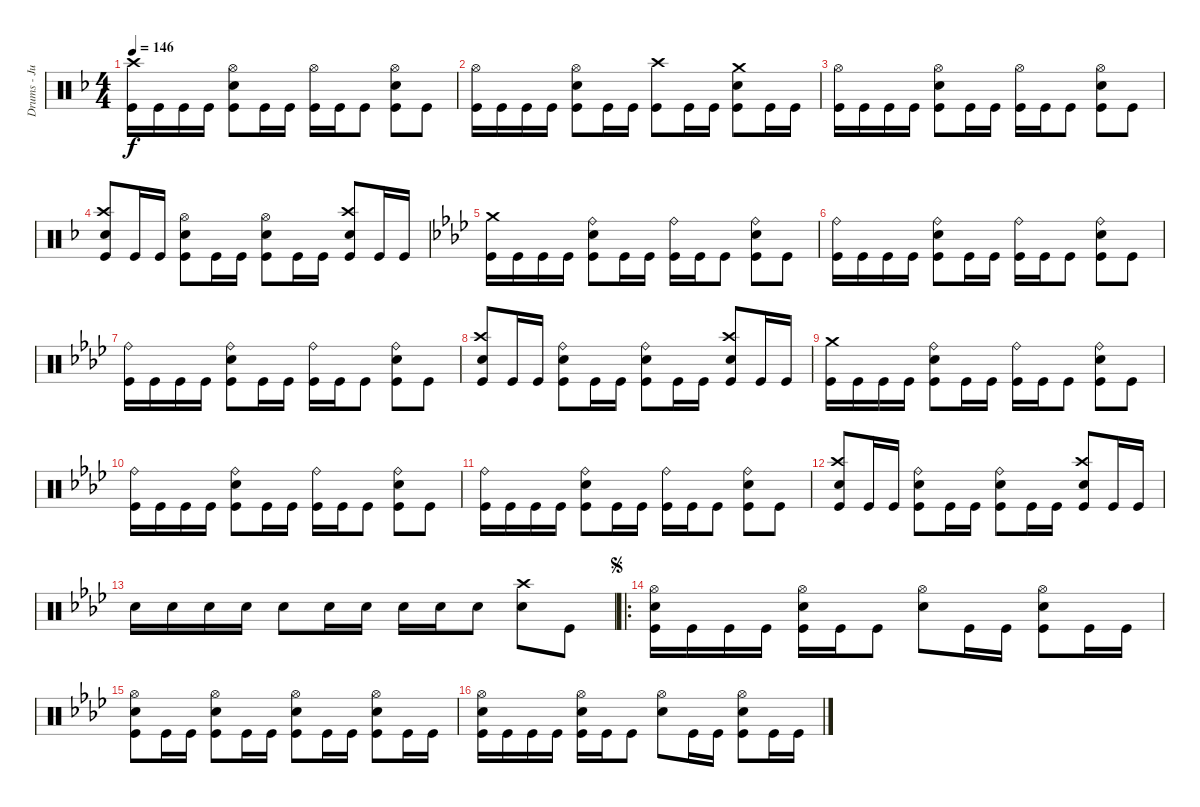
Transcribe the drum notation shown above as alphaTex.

\track ("Drums - Jukka" "Drums - Ju") {instrument percussion}
\staff {score}
\articulation defaults
\ts (4 4)
\tempo 146
\clef neutral
\ks dminor
("Kick (hit)" "Crash high (hit)").16{dy f} "Kick (hit)".16 "Kick (hit)".16 "Kick (hit)".16 ("Kick (hit)" "Snare (hit) 2" "Hi-Hat (open)").8 "Kick (hit)".16 "Kick (hit)".16 ("Kick (hit)" "Hi-Hat (open)").16 "Kick (hit)".16 "Kick (hit)".8 ("Kick (hit)" "Snare (hit) 2" "Hi-Hat (open)").8 "Kick (hit)".8 |
("Kick (hit)" "Hi-Hat (open)").16 "Kick (hit)".16 "Kick (hit)".16 "Kick (hit)".16 ("Kick (hit)" "Snare (hit) 2" "Hi-Hat (open)").8 "Kick (hit)".16 "Kick (hit)".16 ("Kick (hit)" "Crash high (hit)").8 "Kick (hit)".16 "Kick (hit)".16 ("Kick (hit)" "Snare (hit) 2" "Crash medium (hit)").8 "Kick (hit)".16 "Kick (hit)".16 |
("Kick (hit)" "Hi-Hat (open)").16 "Kick (hit)".16 "Kick (hit)".16 "Kick (hit)".16 ("Kick (hit)" "Snare (hit) 2" "Hi-Hat (open)").8 "Kick (hit)".16 "Kick (hit)".16 ("Kick (hit)" "Hi-Hat (open)").16 "Kick (hit)".16 "Kick (hit)".8 ("Kick (hit)" "Snare (hit) 2" "Hi-Hat (open)").8 "Kick (hit)".8 |
("Kick (hit)" "Crash high (hit)" "Snare (hit) 2").8 "Kick (hit)".16 "Kick (hit)".16 ("Kick (hit)" "Snare (hit) 2" "Hi-Hat (open)").8 "Kick (hit)".16 "Kick (hit)".16 ("Kick (hit)" "Snare (hit) 2" "Hi-Hat (open)").8 "Kick (hit)".16 "Kick (hit)".16 ("Kick (hit)" "Snare (hit) 2" "Crash high (hit)").8 "Kick (hit)".16 "Kick (hit)".16 |
\ks fminor
("Kick (hit)" "Crash medium (hit)").16 "Kick (hit)".16 "Kick (hit)".16 "Kick (hit)".16 ("Kick (hit)" "Snare (hit) 2" "Ride (bell)").8 "Kick (hit)".16 "Kick (hit)".16 ("Kick (hit)" "Ride (bell)").16 "Kick (hit)".16 "Kick (hit)".8 ("Kick (hit)" "Snare (hit) 2" "Ride (bell)").8 "Kick (hit)".8 |
("Kick (hit)" "Ride (bell)").16 "Kick (hit)".16 "Kick (hit)".16 "Kick (hit)".16 ("Kick (hit)" "Snare (hit) 2" "Ride (bell)").8 "Kick (hit)".16 "Kick (hit)".16 ("Kick (hit)" "Ride (bell)").16 "Kick (hit)".16 "Kick (hit)".8 ("Kick (hit)" "Snare (hit) 2" "Ride (bell)").8 "Kick (hit)".8 |
("Kick (hit)" "Ride (bell)").16 "Kick (hit)".16 "Kick (hit)".16 "Kick (hit)".16 ("Kick (hit)" "Snare (hit) 2" "Ride (bell)").8 "Kick (hit)".16 "Kick (hit)".16 ("Kick (hit)" "Ride (bell)").16 "Kick (hit)".16 "Kick (hit)".8 ("Kick (hit)" "Snare (hit) 2" "Ride (bell)").8 "Kick (hit)".8 |
("Kick (hit)" "Crash high (hit)" "Snare (hit) 2").8 "Kick (hit)".16 "Kick (hit)".16 ("Kick (hit)" "Snare (hit) 2" "Ride (bell)").8 "Kick (hit)".16 "Kick (hit)".16 ("Kick (hit)" "Snare (hit) 2" "Ride (bell)").8 "Kick (hit)".16 "Kick (hit)".16 ("Kick (hit)" "Snare (hit) 2" "Crash high (hit)").8 "Kick (hit)".16 "Kick (hit)".16 |
("Kick (hit)" "Crash medium (hit)").16 "Kick (hit)".16 "Kick (hit)".16 "Kick (hit)".16 ("Kick (hit)" "Snare (hit) 2" "Ride (bell)").8 "Kick (hit)".16 "Kick (hit)".16 ("Kick (hit)" "Ride (bell)").16 "Kick (hit)".16 "Kick (hit)".8 ("Kick (hit)" "Snare (hit) 2" "Ride (bell)").8 "Kick (hit)".8 |
("Kick (hit)" "Ride (bell)").16 "Kick (hit)".16 "Kick (hit)".16 "Kick (hit)".16 ("Kick (hit)" "Snare (hit) 2" "Ride (bell)").8 "Kick (hit)".16 "Kick (hit)".16 ("Kick (hit)" "Ride (bell)").16 "Kick (hit)".16 "Kick (hit)".8 ("Kick (hit)" "Snare (hit) 2" "Ride (bell)").8 "Kick (hit)".8 |
("Kick (hit)" "Ride (bell)").16 "Kick (hit)".16 "Kick (hit)".16 "Kick (hit)".16 ("Kick (hit)" "Snare (hit) 2" "Ride (bell)").8 "Kick (hit)".16 "Kick (hit)".16 ("Kick (hit)" "Ride (bell)").16 "Kick (hit)".16 "Kick (hit)".8 ("Kick (hit)" "Snare (hit) 2" "Ride (bell)").8 "Kick (hit)".8 |
("Kick (hit)" "Crash high (hit)" "Snare (hit) 2").8 "Kick (hit)".16 "Kick (hit)".16 ("Kick (hit)" "Snare (hit) 2" "Ride (bell)").8 "Kick (hit)".16 "Kick (hit)".16 ("Kick (hit)" "Snare (hit) 2" "Ride (bell)").8 "Kick (hit)".16 "Kick (hit)".16 ("Kick (hit)" "Snare (hit) 2" "Crash high (hit)").8 "Kick (hit)".16 "Kick (hit)".16 |
"Snare (hit) 2".16 "Snare (hit) 2".16 "Snare (hit) 2".16 "Snare (hit) 2".16 "Snare (hit) 2".8 "Snare (hit) 2".16 "Snare (hit) 2".16 "Snare (hit) 2".16 "Snare (hit) 2".16 "Snare (hit) 2".8 ("Snare (hit) 2" "Crash high (hit)").8 "Kick (hit)".8 |
\ro
\jump segno
("Kick (hit)" "Hi-Hat (open)" "Snare (hit) 2").16 "Kick (hit)".16 "Kick (hit)".16 "Kick (hit)".16 ("Kick (hit)" "Snare (hit) 2" "Hi-Hat (open)").16 "Kick (hit)".16 "Kick (hit)".8 ("Hi-Hat (open)" "Snare (hit) 2").8 "Kick (hit)".16 "Kick (hit)".16 ("Kick (hit)" "Snare (hit) 2" "Hi-Hat (open)").8 "Kick (hit)".16 "Kick (hit)".16 |
("Snare (hit) 2" "Kick (hit)" "Hi-Hat (open)").8 "Kick (hit)".16 "Kick (hit)".16 ("Snare (hit) 2" "Kick (hit)" "Hi-Hat (open)").8 "Kick (hit)".16 "Kick (hit)".16 ("Snare (hit) 2" "Kick (hit)" "Hi-Hat (open)").8 "Kick (hit)".16 "Kick (hit)".16 ("Snare (hit) 2" "Kick (hit)" "Hi-Hat (open)").8 "Kick (hit)".16 "Kick (hit)".16 |
("Kick (hit)" "Hi-Hat (open)" "Snare (hit) 2").16 "Kick (hit)".16 "Kick (hit)".16 "Kick (hit)".16 ("Kick (hit)" "Snare (hit) 2" "Hi-Hat (open)").16 "Kick (hit)".16 "Kick (hit)".8 ("Hi-Hat (open)" "Snare (hit) 2").8 "Kick (hit)".16 "Kick (hit)".16 ("Kick (hit)" "Snare (hit) 2" "Hi-Hat (open)").8 "Kick (hit)".16 "Kick (hit)".16
